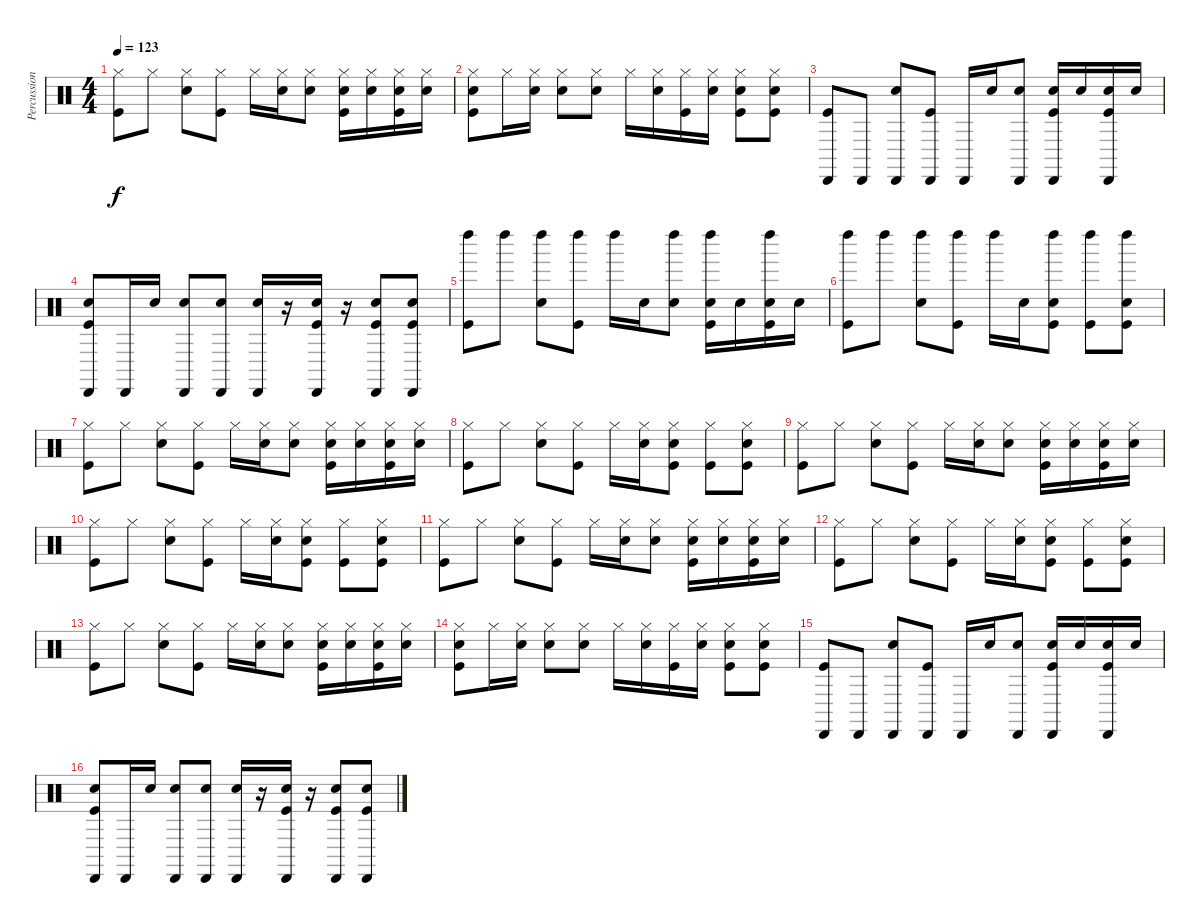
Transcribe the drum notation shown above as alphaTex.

\track ("Percussion" "Percussion") {instrument percussion}
\staff {score}
\articulation defaults
\ts (4 4)
\tempo 123
\clef neutral
\ks c
("Hi-Hat (closed)" "Kick (hit)").8{dy f} "Hi-Hat (closed)".8 ("Hi-Hat (closed)" "Snare (hit) 2").8 ("Hi-Hat (closed)" "Kick (hit)").8 "Hi-Hat (closed)".16 ("Hi-Hat (closed)" "Snare (hit) 2").16 ("Hi-Hat (closed)" "Snare (hit) 2").8 ("Hi-Hat (closed)" "Snare (hit) 2" "Kick (hit)").16 ("Hi-Hat (closed)" "Snare (hit) 2").16 ("Hi-Hat (closed)" "Snare (hit) 2" "Kick (hit)").16 ("Hi-Hat (closed)" "Snare (hit) 2").16 |
("Hi-Hat (closed)" "Snare (hit) 2" "Kick (hit)").8 "Hi-Hat (closed)".16 ("Hi-Hat (closed)" "Snare (hit) 2").16 ("Hi-Hat (closed)" "Snare (hit) 2").8 ("Hi-Hat (closed)" "Snare (hit) 2").8 "Hi-Hat (closed)".16 ("Hi-Hat (closed)" "Snare (hit) 2").16 ("Hi-Hat (closed)" "Kick (hit)").16 ("Hi-Hat (closed)" "Snare (hit) 2").16 ("Hi-Hat (closed)" "Snare (hit) 2" "Kick (hit)").8 ("Hi-Hat (closed)" "Snare (hit) 2" "Kick (hit)").8 |
("Cabasa (hit)" "Kick (hit)").8 "Cabasa (hit)".8 ("Cabasa (hit)" "Snare (hit) 2").8 ("Cabasa (hit)" "Kick (hit)").8 "Cabasa (hit)".16 "Snare (hit) 2".16 ("Cabasa (hit)" "Snare (hit) 2").8 ("Cabasa (hit)" "Snare (hit) 2" "Kick (hit)").16 "Snare (hit) 2".16 ("Cabasa (hit)" "Snare (hit) 2" "Kick (hit)").16 "Snare (hit) 2".16 |
("Cabasa (hit)" "Snare (hit) 2" "Kick (hit)").8 "Cabasa (hit)".16 "Snare (hit) 2".16 ("Cabasa (hit)" "Snare (hit) 2").8 ("Cabasa (hit)" "Snare (hit) 2").8 ("Cabasa (hit)" "Snare (hit) 2").16 r.16 ("Cabasa (hit)" "Snare (hit) 2" "Kick (hit)").16 r.16 ("Cabasa (hit)" "Snare (hit) 2" "Kick (hit)").8 ("Cabasa (hit)" "Snare (hit) 2" "Kick (hit)").8 |
("Left Maraca (hit)" "Kick (hit)").8 "Left Maraca (hit)".8 ("Left Maraca (hit)" "Snare (hit) 2").8 ("Left Maraca (hit)" "Kick (hit)").8 "Left Maraca (hit)".16 "Snare (hit) 2".16 ("Left Maraca (hit)" "Snare (hit) 2").8 ("Left Maraca (hit)" "Snare (hit) 2" "Kick (hit)").16 "Snare (hit) 2".16 ("Left Maraca (hit)" "Snare (hit) 2" "Kick (hit)").16 "Snare (hit) 2".16 |
("Left Maraca (hit)" "Kick (hit)").8 "Left Maraca (hit)".8 ("Left Maraca (hit)" "Snare (hit) 2").8 ("Left Maraca (hit)" "Kick (hit)").8 "Left Maraca (hit)".16 "Snare (hit) 2".16 ("Left Maraca (hit)" "Snare (hit) 2" "Kick (hit)").8 ("Left Maraca (hit)" "Kick (hit)").8 ("Left Maraca (hit)" "Snare (hit) 2" "Kick (hit)").8 |
("Hi-Hat (closed)" "Kick (hit)").8 "Hi-Hat (closed)".8 ("Hi-Hat (closed)" "Snare (hit) 2").8 ("Hi-Hat (closed)" "Kick (hit)").8 "Hi-Hat (closed)".16 ("Hi-Hat (closed)" "Snare (hit) 2").16 ("Hi-Hat (closed)" "Snare (hit) 2").8 ("Hi-Hat (closed)" "Snare (hit) 2" "Kick (hit)").16 ("Hi-Hat (closed)" "Snare (hit) 2").16 ("Hi-Hat (closed)" "Snare (hit) 2" "Kick (hit)").16 ("Hi-Hat (closed)" "Snare (hit) 2").16 |
("Hi-Hat (closed)" "Kick (hit)").8 "Hi-Hat (closed)".8 ("Hi-Hat (closed)" "Snare (hit) 2").8 ("Hi-Hat (closed)" "Kick (hit)").8 "Hi-Hat (closed)".16 ("Hi-Hat (closed)" "Snare (hit) 2").16 ("Hi-Hat (closed)" "Snare (hit) 2" "Kick (hit)").8 ("Hi-Hat (closed)" "Kick (hit)").8 ("Hi-Hat (closed)" "Snare (hit) 2" "Kick (hit)").8 |
("Hi-Hat (closed)" "Kick (hit)").8 "Hi-Hat (closed)".8 ("Hi-Hat (closed)" "Snare (hit) 2").8 ("Hi-Hat (closed)" "Kick (hit)").8 "Hi-Hat (closed)".16 ("Hi-Hat (closed)" "Snare (hit) 2").16 ("Hi-Hat (closed)" "Snare (hit) 2").8 ("Hi-Hat (closed)" "Snare (hit) 2" "Kick (hit)").16 ("Hi-Hat (closed)" "Snare (hit) 2").16 ("Hi-Hat (closed)" "Snare (hit) 2" "Kick (hit)").16 ("Hi-Hat (closed)" "Snare (hit) 2").16 |
("Hi-Hat (closed)" "Kick (hit)").8 "Hi-Hat (closed)".8 ("Hi-Hat (closed)" "Snare (hit) 2").8 ("Hi-Hat (closed)" "Kick (hit)").8 "Hi-Hat (closed)".16 ("Hi-Hat (closed)" "Snare (hit) 2").16 ("Hi-Hat (closed)" "Snare (hit) 2" "Kick (hit)").8 ("Hi-Hat (closed)" "Kick (hit)").8 ("Hi-Hat (closed)" "Snare (hit) 2" "Kick (hit)").8 |
("Hi-Hat (closed)" "Kick (hit)").8 "Hi-Hat (closed)".8 ("Hi-Hat (closed)" "Snare (hit) 2").8 ("Hi-Hat (closed)" "Kick (hit)").8 "Hi-Hat (closed)".16 ("Hi-Hat (closed)" "Snare (hit) 2").16 ("Hi-Hat (closed)" "Snare (hit) 2").8 ("Hi-Hat (closed)" "Snare (hit) 2" "Kick (hit)").16 ("Hi-Hat (closed)" "Snare (hit) 2").16 ("Hi-Hat (closed)" "Snare (hit) 2" "Kick (hit)").16 ("Hi-Hat (closed)" "Snare (hit) 2").16 |
("Hi-Hat (closed)" "Kick (hit)").8 "Hi-Hat (closed)".8 ("Hi-Hat (closed)" "Snare (hit) 2").8 ("Hi-Hat (closed)" "Kick (hit)").8 "Hi-Hat (closed)".16 ("Hi-Hat (closed)" "Snare (hit) 2").16 ("Hi-Hat (closed)" "Snare (hit) 2" "Kick (hit)").8 ("Hi-Hat (closed)" "Kick (hit)").8 ("Hi-Hat (closed)" "Snare (hit) 2" "Kick (hit)").8 |
("Hi-Hat (closed)" "Kick (hit)").8 "Hi-Hat (closed)".8 ("Hi-Hat (closed)" "Snare (hit) 2").8 ("Hi-Hat (closed)" "Kick (hit)").8 "Hi-Hat (closed)".16 ("Hi-Hat (closed)" "Snare (hit) 2").16 ("Hi-Hat (closed)" "Snare (hit) 2").8 ("Hi-Hat (closed)" "Snare (hit) 2" "Kick (hit)").16 ("Hi-Hat (closed)" "Snare (hit) 2").16 ("Hi-Hat (closed)" "Snare (hit) 2" "Kick (hit)").16 ("Hi-Hat (closed)" "Snare (hit) 2").16 |
("Hi-Hat (closed)" "Snare (hit) 2" "Kick (hit)").8 "Hi-Hat (closed)".16 ("Hi-Hat (closed)" "Snare (hit) 2").16 ("Hi-Hat (closed)" "Snare (hit) 2").8 ("Hi-Hat (closed)" "Snare (hit) 2").8 "Hi-Hat (closed)".16 ("Hi-Hat (closed)" "Snare (hit) 2").16 ("Hi-Hat (closed)" "Kick (hit)").16 ("Hi-Hat (closed)" "Snare (hit) 2").16 ("Hi-Hat (closed)" "Snare (hit) 2" "Kick (hit)").8 ("Hi-Hat (closed)" "Snare (hit) 2" "Kick (hit)").8 |
("Cabasa (hit)" "Kick (hit)").8 "Cabasa (hit)".8 ("Cabasa (hit)" "Snare (hit) 2").8 ("Cabasa (hit)" "Kick (hit)").8 "Cabasa (hit)".16 "Snare (hit) 2".16 ("Cabasa (hit)" "Snare (hit) 2").8 ("Cabasa (hit)" "Snare (hit) 2" "Kick (hit)").16 "Snare (hit) 2".16 ("Cabasa (hit)" "Snare (hit) 2" "Kick (hit)").16 "Snare (hit) 2".16 |
("Cabasa (hit)" "Snare (hit) 2" "Kick (hit)").8 "Cabasa (hit)".16 "Snare (hit) 2".16 ("Cabasa (hit)" "Snare (hit) 2").8 ("Cabasa (hit)" "Snare (hit) 2").8 ("Cabasa (hit)" "Snare (hit) 2").16 r.16 ("Cabasa (hit)" "Snare (hit) 2" "Kick (hit)").16 r.16 ("Cabasa (hit)" "Snare (hit) 2" "Kick (hit)").8 ("Cabasa (hit)" "Snare (hit) 2" "Kick (hit)").8
